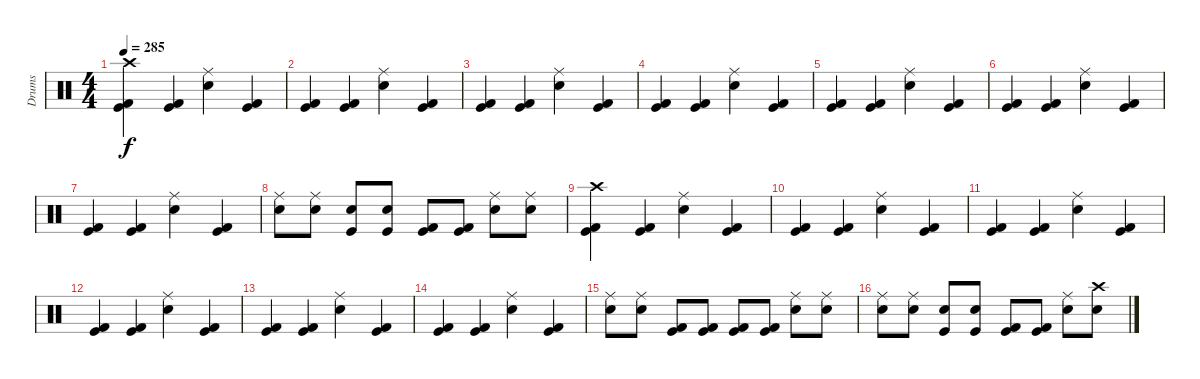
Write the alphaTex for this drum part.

\track ("Drums" "Drums") {instrument percussion}
\staff {score}
\articulation defaults
\ts (4 4)
\tempo 285
\clef neutral
\ks c
("Crash high (hit)" "Kick (hit)" "Kick (hit) 2").4{dy f} ("Kick (hit)" "Kick (hit) 2").4 ("Ride (middle)" "Electric Snare (hit)").4 ("Kick (hit)" "Kick (hit) 2").4 |
("Kick (hit)" "Kick (hit) 2").4 ("Kick (hit)" "Kick (hit) 2").4 ("Ride (middle)" "Electric Snare (hit)").4 ("Kick (hit)" "Kick (hit) 2").4 |
("Kick (hit)" "Kick (hit) 2").4 ("Kick (hit)" "Kick (hit) 2").4 ("Ride (middle)" "Electric Snare (hit)").4 ("Kick (hit)" "Kick (hit) 2").4 |
("Kick (hit)" "Kick (hit) 2").4 ("Kick (hit)" "Kick (hit) 2").4 ("Ride (middle)" "Electric Snare (hit)").4 ("Kick (hit)" "Kick (hit) 2").4 |
("Kick (hit)" "Kick (hit) 2").4 ("Kick (hit)" "Kick (hit) 2").4 ("Ride (middle)" "Electric Snare (hit)").4 ("Kick (hit)" "Kick (hit) 2").4 |
("Kick (hit)" "Kick (hit) 2").4 ("Kick (hit)" "Kick (hit) 2").4 ("Ride (middle)" "Electric Snare (hit)").4 ("Kick (hit)" "Kick (hit) 2").4 |
("Kick (hit)" "Kick (hit) 2").4 ("Kick (hit)" "Kick (hit) 2").4 ("Ride (middle)" "Electric Snare (hit)").4 ("Kick (hit)" "Kick (hit) 2").4 |
("Ride (middle)" "Electric Snare (hit)").8 ("Ride (middle)" "Electric Snare (hit)").8 ("Kick (hit)" "Snare (hit) 2").8 ("Kick (hit)" "Snare (hit) 2").8 ("Kick (hit)" "Kick (hit) 2").8 ("Kick (hit)" "Kick (hit) 2").8 ("Ride (middle)" "Electric Snare (hit)").8 ("Ride (middle)" "Electric Snare (hit)").8 |
("Crash high (hit)" "Kick (hit)" "Kick (hit) 2").4 ("Kick (hit)" "Kick (hit) 2").4 ("Ride (middle)" "Electric Snare (hit)").4 ("Kick (hit)" "Kick (hit) 2").4 |
("Kick (hit)" "Kick (hit) 2").4 ("Kick (hit)" "Kick (hit) 2").4 ("Ride (middle)" "Electric Snare (hit)").4 ("Kick (hit)" "Kick (hit) 2").4 |
("Kick (hit)" "Kick (hit) 2").4 ("Kick (hit)" "Kick (hit) 2").4 ("Ride (middle)" "Electric Snare (hit)").4 ("Kick (hit)" "Kick (hit) 2").4 |
("Kick (hit)" "Kick (hit) 2").4 ("Kick (hit)" "Kick (hit) 2").4 ("Ride (middle)" "Electric Snare (hit)").4 ("Kick (hit)" "Kick (hit) 2").4 |
("Kick (hit)" "Kick (hit) 2").4 ("Kick (hit)" "Kick (hit) 2").4 ("Ride (middle)" "Electric Snare (hit)").4 ("Kick (hit)" "Kick (hit) 2").4 |
("Kick (hit)" "Kick (hit) 2").4 ("Kick (hit)" "Kick (hit) 2").4 ("Ride (middle)" "Electric Snare (hit)").4 ("Kick (hit)" "Kick (hit) 2").4 |
("Ride (middle)" "Electric Snare (hit)").8 ("Ride (middle)" "Electric Snare (hit)").8 ("Kick (hit)" "Kick (hit) 2").8 ("Kick (hit)" "Kick (hit) 2").8 ("Kick (hit)" "Kick (hit) 2").8 ("Kick (hit)" "Kick (hit) 2").8 ("Ride (middle)" "Electric Snare (hit)").8 ("Ride (middle)" "Electric Snare (hit)").8 |
("Ride (middle)" "Electric Snare (hit)").8 ("Ride (middle)" "Electric Snare (hit)").8 ("Kick (hit)" "Snare (hit) 2").8 ("Kick (hit)" "Snare (hit) 2").8 ("Kick (hit)" "Kick (hit) 2").8 ("Kick (hit)" "Kick (hit) 2").8 ("Ride (middle)" "Electric Snare (hit)").8 ("Crash high (hit)" "Electric Snare (hit)").8
